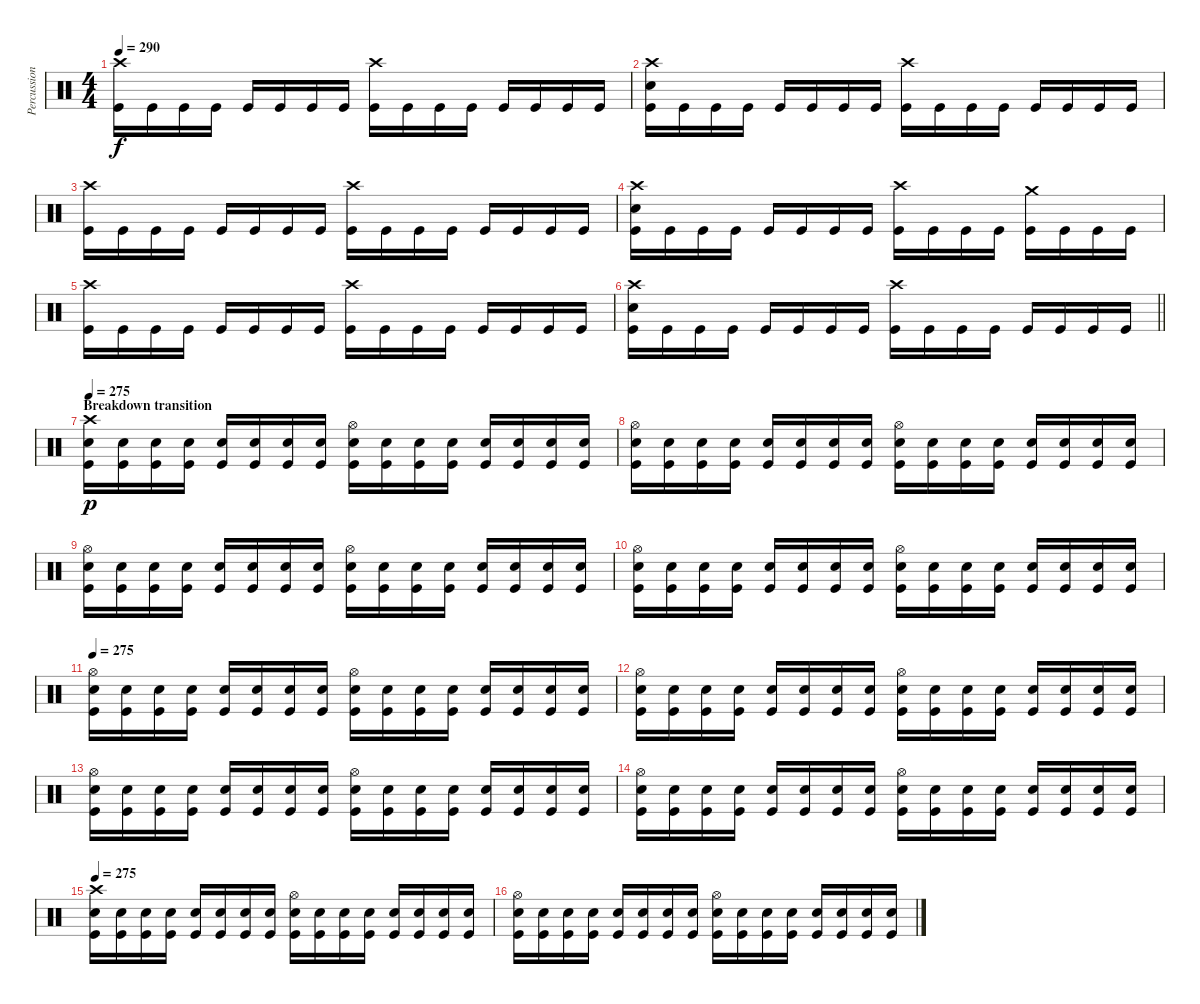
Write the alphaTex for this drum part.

\track ("Percussion" "Percussion") {instrument percussion}
\staff {score}
\articulation defaults
\ts (4 4)
\tempo 290
\clef neutral
\ks c
("Crash high (hit)" "Kick (hit)").16{dy f} "Kick (hit)".16 "Kick (hit)".16 "Kick (hit)".16 "Kick (hit)".16 "Kick (hit)".16 "Kick (hit)".16 "Kick (hit)".16 ("Crash high (hit)" "Kick (hit)").16 "Kick (hit)".16 "Kick (hit)".16 "Kick (hit)".16 "Kick (hit)".16 "Kick (hit)".16 "Kick (hit)".16 "Kick (hit)".16 |
("Electric Snare (hit)" "Crash high (hit)" "Kick (hit)").16 "Kick (hit)".16 "Kick (hit)".16 "Kick (hit)".16 "Kick (hit)".16 "Kick (hit)".16 "Kick (hit)".16 "Kick (hit)".16 ("Crash high (hit)" "Kick (hit)").16 "Kick (hit)".16 "Kick (hit)".16 "Kick (hit)".16 "Kick (hit)".16 "Kick (hit)".16 "Kick (hit)".16 "Kick (hit)".16 |
("Crash high (hit)" "Kick (hit)").16 "Kick (hit)".16 "Kick (hit)".16 "Kick (hit)".16 "Kick (hit)".16 "Kick (hit)".16 "Kick (hit)".16 "Kick (hit)".16 ("Crash high (hit)" "Kick (hit)").16 "Kick (hit)".16 "Kick (hit)".16 "Kick (hit)".16 "Kick (hit)".16 "Kick (hit)".16 "Kick (hit)".16 "Kick (hit)".16 |
("Electric Snare (hit)" "Crash high (hit)" "Kick (hit)").16 "Kick (hit)".16 "Kick (hit)".16 "Kick (hit)".16 "Kick (hit)".16 "Kick (hit)".16 "Kick (hit)".16 "Kick (hit)".16 ("Crash high (hit)" "Kick (hit)").16 "Kick (hit)".16 "Kick (hit)".16 "Kick (hit)".16 ("Crash medium (hit)" "Kick (hit)").16 "Kick (hit)".16 "Kick (hit)".16 "Kick (hit)".16 |
("Crash high (hit)" "Kick (hit)").16 "Kick (hit)".16 "Kick (hit)".16 "Kick (hit)".16 "Kick (hit)".16 "Kick (hit)".16 "Kick (hit)".16 "Kick (hit)".16 ("Crash high (hit)" "Kick (hit)").16 "Kick (hit)".16 "Kick (hit)".16 "Kick (hit)".16 "Kick (hit)".16 "Kick (hit)".16 "Kick (hit)".16 "Kick (hit)".16 |
\barLineRight lightlight
("Electric Snare (hit)" "Crash high (hit)" "Kick (hit)").16 "Kick (hit)".16 "Kick (hit)".16 "Kick (hit)".16 "Kick (hit)".16 "Kick (hit)".16 "Kick (hit)".16 "Kick (hit)".16 ("Crash high (hit)" "Kick (hit)").16 "Kick (hit)".16 "Kick (hit)".16 "Kick (hit)".16 "Kick (hit)".16 "Kick (hit)".16 "Kick (hit)".16 "Kick (hit)".16 |
\section ("" "Breakdown transition")
\tempo 275
("Crash high (hit)" "Electric Snare (hit)" "Kick (hit)").16{dy p} ("Electric Snare (hit)" "Kick (hit)").16 ("Electric Snare (hit)" "Kick (hit)").16 ("Electric Snare (hit)" "Kick (hit)").16 ("Electric Snare (hit)" "Kick (hit)").16 ("Electric Snare (hit)" "Kick (hit)").16 ("Electric Snare (hit)" "Kick (hit)").16 ("Electric Snare (hit)" "Kick (hit)").16 ("Electric Snare (hit)" "Hi-Hat (open)" "Kick (hit)").16 ("Electric Snare (hit)" "Kick (hit)").16 ("Electric Snare (hit)" "Kick (hit)").16 ("Electric Snare (hit)" "Kick (hit)").16 ("Electric Snare (hit)" "Kick (hit)").16 ("Electric Snare (hit)" "Kick (hit)").16 ("Electric Snare (hit)" "Kick (hit)").16 ("Electric Snare (hit)" "Kick (hit)").16 |
("Hi-Hat (open)" "Electric Snare (hit)" "Kick (hit)").16 ("Electric Snare (hit)" "Kick (hit)").16 ("Electric Snare (hit)" "Kick (hit)").16 ("Electric Snare (hit)" "Kick (hit)").16 ("Electric Snare (hit)" "Kick (hit)").16 ("Electric Snare (hit)" "Kick (hit)").16 ("Electric Snare (hit)" "Kick (hit)").16 ("Electric Snare (hit)" "Kick (hit)").16 ("Electric Snare (hit)" "Hi-Hat (open)" "Kick (hit)").16 ("Electric Snare (hit)" "Kick (hit)").16 ("Electric Snare (hit)" "Kick (hit)").16 ("Electric Snare (hit)" "Kick (hit)").16 ("Electric Snare (hit)" "Kick (hit)").16 ("Electric Snare (hit)" "Kick (hit)").16 ("Electric Snare (hit)" "Kick (hit)").16 ("Electric Snare (hit)" "Kick (hit)").16 |
("Hi-Hat (open)" "Electric Snare (hit)" "Kick (hit)").16 ("Electric Snare (hit)" "Kick (hit)").16 ("Electric Snare (hit)" "Kick (hit)").16 ("Electric Snare (hit)" "Kick (hit)").16 ("Electric Snare (hit)" "Kick (hit)").16 ("Electric Snare (hit)" "Kick (hit)").16 ("Electric Snare (hit)" "Kick (hit)").16 ("Electric Snare (hit)" "Kick (hit)").16 ("Electric Snare (hit)" "Hi-Hat (open)" "Kick (hit)").16 ("Electric Snare (hit)" "Kick (hit)").16 ("Electric Snare (hit)" "Kick (hit)").16 ("Electric Snare (hit)" "Kick (hit)").16 ("Electric Snare (hit)" "Kick (hit)").16 ("Electric Snare (hit)" "Kick (hit)").16 ("Electric Snare (hit)" "Kick (hit)").16 ("Electric Snare (hit)" "Kick (hit)").16 |
("Hi-Hat (open)" "Electric Snare (hit)" "Kick (hit)").16 ("Electric Snare (hit)" "Kick (hit)").16 ("Electric Snare (hit)" "Kick (hit)").16 ("Electric Snare (hit)" "Kick (hit)").16 ("Electric Snare (hit)" "Kick (hit)").16 ("Electric Snare (hit)" "Kick (hit)").16 ("Electric Snare (hit)" "Kick (hit)").16 ("Electric Snare (hit)" "Kick (hit)").16 ("Electric Snare (hit)" "Hi-Hat (open)" "Kick (hit)").16 ("Electric Snare (hit)" "Kick (hit)").16 ("Electric Snare (hit)" "Kick (hit)").16 ("Electric Snare (hit)" "Kick (hit)").16 ("Electric Snare (hit)" "Kick (hit)").16 ("Electric Snare (hit)" "Kick (hit)").16 ("Electric Snare (hit)" "Kick (hit)").16 ("Electric Snare (hit)" "Kick (hit)").16 |
\tempo 275
("Hi-Hat (open)" "Electric Snare (hit)" "Kick (hit)").16 ("Electric Snare (hit)" "Kick (hit)").16 ("Electric Snare (hit)" "Kick (hit)").16 ("Electric Snare (hit)" "Kick (hit)").16 ("Electric Snare (hit)" "Kick (hit)").16 ("Electric Snare (hit)" "Kick (hit)").16 ("Electric Snare (hit)" "Kick (hit)").16 ("Electric Snare (hit)" "Kick (hit)").16 ("Electric Snare (hit)" "Hi-Hat (open)" "Kick (hit)").16 ("Electric Snare (hit)" "Kick (hit)").16 ("Electric Snare (hit)" "Kick (hit)").16 ("Electric Snare (hit)" "Kick (hit)").16 ("Electric Snare (hit)" "Kick (hit)").16 ("Electric Snare (hit)" "Kick (hit)").16 ("Electric Snare (hit)" "Kick (hit)").16 ("Electric Snare (hit)" "Kick (hit)").16 |
("Hi-Hat (open)" "Electric Snare (hit)" "Kick (hit)").16 ("Electric Snare (hit)" "Kick (hit)").16 ("Electric Snare (hit)" "Kick (hit)").16 ("Electric Snare (hit)" "Kick (hit)").16 ("Electric Snare (hit)" "Kick (hit)").16 ("Electric Snare (hit)" "Kick (hit)").16 ("Electric Snare (hit)" "Kick (hit)").16 ("Electric Snare (hit)" "Kick (hit)").16 ("Electric Snare (hit)" "Hi-Hat (open)" "Kick (hit)").16 ("Electric Snare (hit)" "Kick (hit)").16 ("Electric Snare (hit)" "Kick (hit)").16 ("Electric Snare (hit)" "Kick (hit)").16 ("Electric Snare (hit)" "Kick (hit)").16 ("Electric Snare (hit)" "Kick (hit)").16 ("Electric Snare (hit)" "Kick (hit)").16 ("Electric Snare (hit)" "Kick (hit)").16 |
("Hi-Hat (open)" "Electric Snare (hit)" "Kick (hit)").16 ("Electric Snare (hit)" "Kick (hit)").16 ("Electric Snare (hit)" "Kick (hit)").16 ("Electric Snare (hit)" "Kick (hit)").16 ("Electric Snare (hit)" "Kick (hit)").16 ("Electric Snare (hit)" "Kick (hit)").16 ("Electric Snare (hit)" "Kick (hit)").16 ("Electric Snare (hit)" "Kick (hit)").16 ("Electric Snare (hit)" "Hi-Hat (open)" "Kick (hit)").16 ("Electric Snare (hit)" "Kick (hit)").16 ("Electric Snare (hit)" "Kick (hit)").16 ("Electric Snare (hit)" "Kick (hit)").16 ("Electric Snare (hit)" "Kick (hit)").16 ("Electric Snare (hit)" "Kick (hit)").16 ("Electric Snare (hit)" "Kick (hit)").16 ("Electric Snare (hit)" "Kick (hit)").16 |
("Hi-Hat (open)" "Electric Snare (hit)" "Kick (hit)").16 ("Electric Snare (hit)" "Kick (hit)").16 ("Electric Snare (hit)" "Kick (hit)").16 ("Electric Snare (hit)" "Kick (hit)").16 ("Electric Snare (hit)" "Kick (hit)").16 ("Electric Snare (hit)" "Kick (hit)").16 ("Electric Snare (hit)" "Kick (hit)").16 ("Electric Snare (hit)" "Kick (hit)").16 ("Electric Snare (hit)" "Hi-Hat (open)" "Kick (hit)").16 ("Electric Snare (hit)" "Kick (hit)").16 ("Electric Snare (hit)" "Kick (hit)").16 ("Electric Snare (hit)" "Kick (hit)").16 ("Electric Snare (hit)" "Kick (hit)").16 ("Electric Snare (hit)" "Kick (hit)").16 ("Electric Snare (hit)" "Kick (hit)").16 ("Electric Snare (hit)" "Kick (hit)").16 |
\tempo 275
("Crash high (hit)" "Electric Snare (hit)" "Kick (hit)").16 ("Electric Snare (hit)" "Kick (hit)").16 ("Electric Snare (hit)" "Kick (hit)").16 ("Electric Snare (hit)" "Kick (hit)").16 ("Electric Snare (hit)" "Kick (hit)").16 ("Electric Snare (hit)" "Kick (hit)").16 ("Electric Snare (hit)" "Kick (hit)").16 ("Electric Snare (hit)" "Kick (hit)").16 ("Electric Snare (hit)" "Hi-Hat (open)" "Kick (hit)").16 ("Electric Snare (hit)" "Kick (hit)").16 ("Electric Snare (hit)" "Kick (hit)").16 ("Electric Snare (hit)" "Kick (hit)").16 ("Electric Snare (hit)" "Kick (hit)").16 ("Electric Snare (hit)" "Kick (hit)").16 ("Electric Snare (hit)" "Kick (hit)").16 ("Electric Snare (hit)" "Kick (hit)").16 |
("Hi-Hat (open)" "Electric Snare (hit)" "Kick (hit)").16 ("Electric Snare (hit)" "Kick (hit)").16 ("Electric Snare (hit)" "Kick (hit)").16 ("Electric Snare (hit)" "Kick (hit)").16 ("Electric Snare (hit)" "Kick (hit)").16 ("Electric Snare (hit)" "Kick (hit)").16 ("Electric Snare (hit)" "Kick (hit)").16 ("Electric Snare (hit)" "Kick (hit)").16 ("Electric Snare (hit)" "Hi-Hat (open)" "Kick (hit)").16 ("Electric Snare (hit)" "Kick (hit)").16 ("Electric Snare (hit)" "Kick (hit)").16 ("Electric Snare (hit)" "Kick (hit)").16 ("Electric Snare (hit)" "Kick (hit)").16 ("Electric Snare (hit)" "Kick (hit)").16 ("Electric Snare (hit)" "Kick (hit)").16 ("Electric Snare (hit)" "Kick (hit)").16
